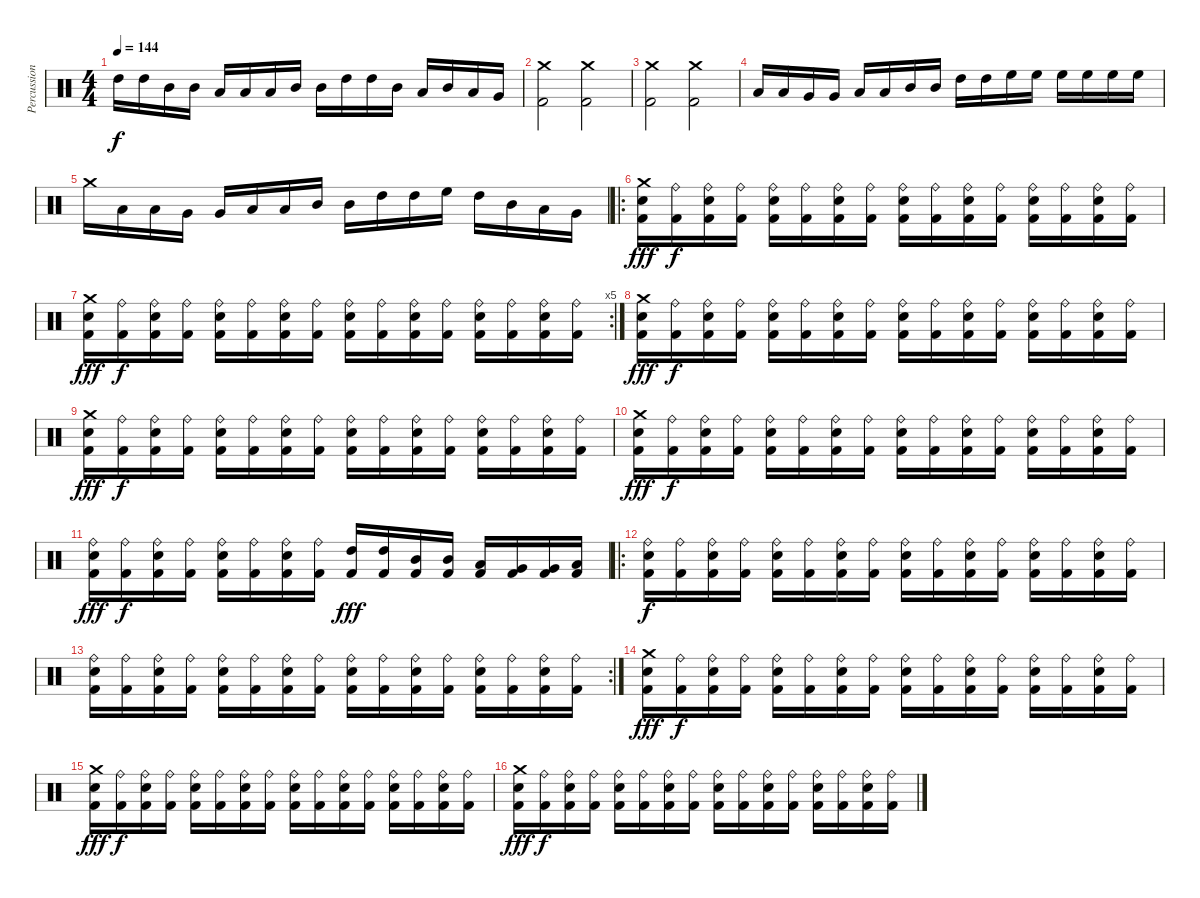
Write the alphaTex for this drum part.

\track ("Percussion -  Bard Faust" "Percussion") {instrument percussion}
\staff {score}
\articulation defaults
\ts (4 4)
\tempo 144
\clef neutral
\ks c "High Tom (hit)".16{dy f} "High Tom (hit)".16 "Mid Tom (hit)".16 "Mid Tom (hit)".16 "Low Tom (hit)".16 "Low Tom (hit)".16 "Low Tom (hit)".16 "Mid Tom (hit)".16 "Mid Tom (hit)".16 "High Tom (hit)".16 "High Tom (hit)".16 "Mid Tom (hit)".16 "Low Tom (hit)".16 "Mid Tom (hit)".16 "Low Tom (hit)".16 "Very Low Tom (hit)".16
|
("Crash medium (hit)" "Kick (hit) 2").2 ("Crash medium (hit)" "Kick (hit) 2").2 |
("Crash medium (hit)" "Kick (hit) 2").2 ("Crash medium (hit)" "Kick (hit) 2").2 |
"Low Floor Tom (hit)".16 "Low Floor Tom (hit)".16 "Very Low Tom (hit)".16 "Very Low Tom (hit)".16 "Low Tom (hit)".16 "Low Tom (hit)".16 "Mid Tom (hit)".16 "Mid Tom (hit)".16 "High Tom (hit)".16 "High Tom (hit)".16 "High Floor Tom (hit)".16 "High Floor Tom (hit)".16 "High Floor Tom (hit)".16 "High Floor Tom (hit)".16 "High Floor Tom (hit)".16 "High Floor Tom (hit)".16 |
"Crash medium (hit)".16 "Low Floor Tom (hit)".16 "Low Floor Tom (hit)".16 "Very Low Tom (hit)".16 "Very Low Tom (hit)".16 "Low Tom (hit)".16 "Low Tom (hit)".16 "Mid Tom (hit)".16 "Mid Tom (hit)".16 "High Tom (hit)".16 "High Tom (hit)".16 "High Floor Tom (hit)".16 "High Tom (hit)".16 "Mid Tom (hit)".16 "Low Tom (hit)".16 "Very Low Tom (hit)".16 |
\ro
("Crash medium (hit)" "Electric Snare (hit)" "Kick (hit) 2").16{dy fff} ("Ride (bell)" "Kick (hit) 2").16{dy f} ("Ride (bell)" "Electric Snare (hit)" "Kick (hit) 2").16 ("Ride (bell)" "Kick (hit) 2").16 ("Ride (bell)" "Electric Snare (hit)" "Kick (hit) 2").16 ("Ride (bell)" "Kick (hit) 2").16 ("Ride (bell)" "Electric Snare (hit)" "Kick (hit) 2").16 ("Ride (bell)" "Kick (hit) 2").16 ("Ride (bell)" "Electric Snare (hit)" "Kick (hit) 2").16 ("Ride (bell)" "Kick (hit) 2").16 ("Ride (bell)" "Electric Snare (hit)" "Kick (hit) 2").16 ("Ride (bell)" "Kick (hit) 2").16 ("Ride (bell)" "Electric Snare (hit)" "Kick (hit) 2").16 ("Ride (bell)" "Kick (hit) 2").16 ("Ride (bell)" "Electric Snare (hit)" "Kick (hit) 2").16 ("Ride (bell)" "Kick (hit) 2").16 |
\rc 5
("Crash medium (hit)" "Electric Snare (hit)" "Kick (hit) 2").16{dy fff} ("Ride (bell)" "Kick (hit) 2").16{dy f} ("Ride (bell)" "Electric Snare (hit)" "Kick (hit) 2").16 ("Ride (bell)" "Kick (hit) 2").16 ("Ride (bell)" "Electric Snare (hit)" "Kick (hit) 2").16 ("Ride (bell)" "Kick (hit) 2").16 ("Ride (bell)" "Electric Snare (hit)" "Kick (hit) 2").16 ("Ride (bell)" "Kick (hit) 2").16 ("Ride (bell)" "Electric Snare (hit)" "Kick (hit) 2").16 ("Ride (bell)" "Kick (hit) 2").16 ("Ride (bell)" "Electric Snare (hit)" "Kick (hit) 2").16 ("Ride (bell)" "Kick (hit) 2").16 ("Ride (bell)" "Electric Snare (hit)" "Kick (hit) 2").16 ("Ride (bell)" "Kick (hit) 2").16 ("Ride (bell)" "Electric Snare (hit)" "Kick (hit) 2").16 ("Ride (bell)" "Kick (hit) 2").16 |
("Crash medium (hit)" "Electric Snare (hit)" "Kick (hit) 2").16{dy fff} ("Ride (bell)" "Kick (hit) 2").16{dy f} ("Ride (bell)" "Electric Snare (hit)" "Kick (hit) 2").16 ("Ride (bell)" "Kick (hit) 2").16 ("Ride (bell)" "Electric Snare (hit)" "Kick (hit) 2").16 ("Ride (bell)" "Kick (hit) 2").16 ("Ride (bell)" "Electric Snare (hit)" "Kick (hit) 2").16 ("Ride (bell)" "Kick (hit) 2").16 ("Ride (bell)" "Electric Snare (hit)" "Kick (hit) 2").16 ("Ride (bell)" "Kick (hit) 2").16 ("Ride (bell)" "Electric Snare (hit)" "Kick (hit) 2").16 ("Ride (bell)" "Kick (hit) 2").16 ("Ride (bell)" "Electric Snare (hit)" "Kick (hit) 2").16 ("Ride (bell)" "Kick (hit) 2").16 ("Ride (bell)" "Electric Snare (hit)" "Kick (hit) 2").16 ("Ride (bell)" "Kick (hit) 2").16 |
("Crash medium (hit)" "Electric Snare (hit)" "Kick (hit) 2").16{dy fff} ("Ride (bell)" "Kick (hit) 2").16{dy f} ("Ride (bell)" "Electric Snare (hit)" "Kick (hit) 2").16 ("Ride (bell)" "Kick (hit) 2").16 ("Ride (bell)" "Electric Snare (hit)" "Kick (hit) 2").16 ("Ride (bell)" "Kick (hit) 2").16 ("Ride (bell)" "Electric Snare (hit)" "Kick (hit) 2").16 ("Ride (bell)" "Kick (hit) 2").16 ("Ride (bell)" "Electric Snare (hit)" "Kick (hit) 2").16 ("Ride (bell)" "Kick (hit) 2").16 ("Ride (bell)" "Electric Snare (hit)" "Kick (hit) 2").16 ("Ride (bell)" "Kick (hit) 2").16 ("Ride (bell)" "Electric Snare (hit)" "Kick (hit) 2").16 ("Ride (bell)" "Kick (hit) 2").16 ("Ride (bell)" "Electric Snare (hit)" "Kick (hit) 2").16 ("Ride (bell)" "Kick (hit) 2").16 |
("Crash medium (hit)" "Electric Snare (hit)" "Kick (hit) 2").16{dy fff} ("Ride (bell)" "Kick (hit) 2").16{dy f} ("Ride (bell)" "Electric Snare (hit)" "Kick (hit) 2").16 ("Ride (bell)" "Kick (hit) 2").16 ("Ride (bell)" "Electric Snare (hit)" "Kick (hit) 2").16 ("Ride (bell)" "Kick (hit) 2").16 ("Ride (bell)" "Electric Snare (hit)" "Kick (hit) 2").16 ("Ride (bell)" "Kick (hit) 2").16 ("Ride (bell)" "Electric Snare (hit)" "Kick (hit) 2").16 ("Ride (bell)" "Kick (hit) 2").16 ("Ride (bell)" "Electric Snare (hit)" "Kick (hit) 2").16 ("Ride (bell)" "Kick (hit) 2").16 ("Ride (bell)" "Electric Snare (hit)" "Kick (hit) 2").16 ("Ride (bell)" "Kick (hit) 2").16 ("Ride (bell)" "Electric Snare (hit)" "Kick (hit) 2").16 ("Ride (bell)" "Kick (hit) 2").16 |
("Ride (bell)" "Electric Snare (hit)" "Kick (hit) 2").16{dy fff} ("Ride (bell)" "Kick (hit) 2").16{dy f} ("Ride (bell)" "Electric Snare (hit)" "Kick (hit) 2").16 ("Ride (bell)" "Kick (hit) 2").16 ("Ride (bell)" "Electric Snare (hit)" "Kick (hit) 2").16 ("Ride (bell)" "Kick (hit) 2").16 ("Ride (bell)" "Electric Snare (hit)" "Kick (hit) 2").16 ("Ride (bell)" "Kick (hit) 2").16 ("High Tom (hit)" "Kick (hit) 2").16{dy fff} ("High Tom (hit)" "Kick (hit) 2").16 ("Mid Tom (hit)" "Kick (hit) 2").16 ("Mid Tom (hit)" "Kick (hit) 2").16 ("Low Tom (hit)" "Kick (hit) 2").16 ("Very Low Tom (hit)" "Kick (hit) 2").16 ("Very Low Tom (hit)" "Kick (hit) 2").16 ("Low Floor Tom (hit)" "Kick (hit) 2").16 |
\ro
("Ride (bell)" "Electric Snare (hit)" "Kick (hit) 2").16{dy f} ("Ride (bell)" "Kick (hit) 2").16 ("Ride (bell)" "Electric Snare (hit)" "Kick (hit) 2").16 ("Ride (bell)" "Kick (hit) 2").16 ("Ride (bell)" "Electric Snare (hit)" "Kick (hit) 2").16 ("Ride (bell)" "Kick (hit) 2").16 ("Ride (bell)" "Electric Snare (hit)" "Kick (hit) 2").16 ("Ride (bell)" "Kick (hit) 2").16 ("Ride (bell)" "Electric Snare (hit)" "Kick (hit) 2").16 ("Ride (bell)" "Kick (hit) 2").16 ("Ride (bell)" "Electric Snare (hit)" "Kick (hit) 2").16 ("Ride (bell)" "Kick (hit) 2").16 ("Ride (bell)" "Electric Snare (hit)" "Kick (hit) 2").16 ("Ride (bell)" "Kick (hit) 2").16 ("Ride (bell)" "Electric Snare (hit)" "Kick (hit) 2").16 ("Ride (bell)" "Kick (hit) 2").16 |
\rc 2
("Ride (bell)" "Electric Snare (hit)" "Kick (hit) 2").16 ("Ride (bell)" "Kick (hit) 2").16 ("Ride (bell)" "Electric Snare (hit)" "Kick (hit) 2").16 ("Ride (bell)" "Kick (hit) 2").16 ("Ride (bell)" "Electric Snare (hit)" "Kick (hit) 2").16 ("Ride (bell)" "Kick (hit) 2").16 ("Ride (bell)" "Electric Snare (hit)" "Kick (hit) 2").16 ("Ride (bell)" "Kick (hit) 2").16 ("Ride (bell)" "Electric Snare (hit)" "Kick (hit) 2").16 ("Ride (bell)" "Kick (hit) 2").16 ("Ride (bell)" "Electric Snare (hit)" "Kick (hit) 2").16 ("Ride (bell)" "Kick (hit) 2").16 ("Ride (bell)" "Electric Snare (hit)" "Kick (hit) 2").16 ("Ride (bell)" "Kick (hit) 2").16 ("Ride (bell)" "Electric Snare (hit)" "Kick (hit) 2").16 ("Ride (bell)" "Kick (hit) 2").16 |
("Crash medium (hit)" "Electric Snare (hit)" "Kick (hit) 2").16{dy fff} ("Ride (bell)" "Kick (hit) 2").16{dy f} ("Ride (bell)" "Electric Snare (hit)" "Kick (hit) 2").16 ("Ride (bell)" "Kick (hit) 2").16 ("Ride (bell)" "Electric Snare (hit)" "Kick (hit) 2").16 ("Ride (bell)" "Kick (hit) 2").16 ("Ride (bell)" "Electric Snare (hit)" "Kick (hit) 2").16 ("Ride (bell)" "Kick (hit) 2").16 ("Ride (bell)" "Electric Snare (hit)" "Kick (hit) 2").16 ("Ride (bell)" "Kick (hit) 2").16 ("Ride (bell)" "Electric Snare (hit)" "Kick (hit) 2").16 ("Ride (bell)" "Kick (hit) 2").16 ("Ride (bell)" "Electric Snare (hit)" "Kick (hit) 2").16 ("Ride (bell)" "Kick (hit) 2").16 ("Ride (bell)" "Electric Snare (hit)" "Kick (hit) 2").16 ("Ride (bell)" "Kick (hit) 2").16 |
("Crash medium (hit)" "Electric Snare (hit)" "Kick (hit) 2").16{dy fff} ("Ride (bell)" "Kick (hit) 2").16{dy f} ("Ride (bell)" "Electric Snare (hit)" "Kick (hit) 2").16 ("Ride (bell)" "Kick (hit) 2").16 ("Ride (bell)" "Electric Snare (hit)" "Kick (hit) 2").16 ("Ride (bell)" "Kick (hit) 2").16 ("Ride (bell)" "Electric Snare (hit)" "Kick (hit) 2").16 ("Ride (bell)" "Kick (hit) 2").16 ("Ride (bell)" "Electric Snare (hit)" "Kick (hit) 2").16 ("Ride (bell)" "Kick (hit) 2").16 ("Ride (bell)" "Electric Snare (hit)" "Kick (hit) 2").16 ("Ride (bell)" "Kick (hit) 2").16 ("Ride (bell)" "Electric Snare (hit)" "Kick (hit) 2").16 ("Ride (bell)" "Kick (hit) 2").16 ("Ride (bell)" "Electric Snare (hit)" "Kick (hit) 2").16 ("Ride (bell)" "Kick (hit) 2").16 |
("Crash medium (hit)" "Electric Snare (hit)" "Kick (hit) 2").16{dy fff} ("Ride (bell)" "Kick (hit) 2").16{dy f} ("Ride (bell)" "Electric Snare (hit)" "Kick (hit) 2").16 ("Ride (bell)" "Kick (hit) 2").16 ("Ride (bell)" "Electric Snare (hit)" "Kick (hit) 2").16 ("Ride (bell)" "Kick (hit) 2").16 ("Ride (bell)" "Electric Snare (hit)" "Kick (hit) 2").16 ("Ride (bell)" "Kick (hit) 2").16 ("Ride (bell)" "Electric Snare (hit)" "Kick (hit) 2").16 ("Ride (bell)" "Kick (hit) 2").16 ("Ride (bell)" "Electric Snare (hit)" "Kick (hit) 2").16 ("Ride (bell)" "Kick (hit) 2").16 ("Ride (bell)" "Electric Snare (hit)" "Kick (hit) 2").16 ("Ride (bell)" "Kick (hit) 2").16 ("Ride (bell)" "Electric Snare (hit)" "Kick (hit) 2").16 ("Ride (bell)" "Kick (hit) 2").16
